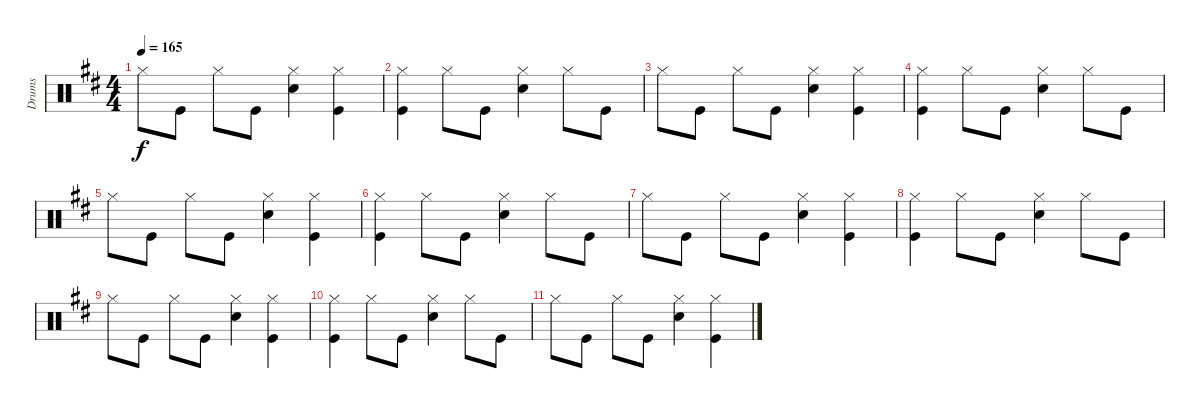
\track ("Drums" "Drums") {instrument percussion}
\staff {score}
\articulation defaults
\ts (4 4)
\tempo 165
\clef neutral
\ks d "Hi-Hat (closed)".8{dy f} "Kick (hit)".8 "Hi-Hat (closed)".8 "Kick (hit)".8
("Hi-Hat (closed)" "Snare (hit) 2").4 ("Hi-Hat (closed)" "Kick (hit)").4 |
("Hi-Hat (closed)" "Kick (hit)").4 "Hi-Hat (closed)".8 "Kick (hit)".8 ("Hi-Hat (closed)" "Snare (hit) 2").4 "Hi-Hat (closed)".8 "Kick (hit)".8 |
"Hi-Hat (closed)".8 "Kick (hit)".8 "Hi-Hat (closed)".8 "Kick (hit)".8 ("Hi-Hat (closed)" "Snare (hit) 2").4 ("Hi-Hat (closed)" "Kick (hit)").4 |
("Hi-Hat (closed)" "Kick (hit)").4 "Hi-Hat (closed)".8 "Kick (hit)".8 ("Hi-Hat (closed)" "Snare (hit) 2").4 "Hi-Hat (closed)".8 "Kick (hit)".8 |
"Hi-Hat (closed)".8 "Kick (hit)".8 "Hi-Hat (closed)".8 "Kick (hit)".8 ("Hi-Hat (closed)" "Snare (hit) 2").4 ("Hi-Hat (closed)" "Kick (hit)").4 |
("Hi-Hat (closed)" "Kick (hit)").4 "Hi-Hat (closed)".8 "Kick (hit)".8 ("Hi-Hat (closed)" "Snare (hit) 2").4 "Hi-Hat (closed)".8 "Kick (hit)".8 |
"Hi-Hat (closed)".8 "Kick (hit)".8 "Hi-Hat (closed)".8 "Kick (hit)".8 ("Hi-Hat (closed)" "Snare (hit) 2").4 ("Hi-Hat (closed)" "Kick (hit)").4 |
("Hi-Hat (closed)" "Kick (hit)").4 "Hi-Hat (closed)".8 "Kick (hit)".8 ("Hi-Hat (closed)" "Snare (hit) 2").4 "Hi-Hat (closed)".8 "Kick (hit)".8 |
"Hi-Hat (closed)".8 "Kick (hit)".8 "Hi-Hat (closed)".8 "Kick (hit)".8 ("Hi-Hat (closed)" "Snare (hit) 2").4 ("Hi-Hat (closed)" "Kick (hit)").4 |
("Hi-Hat (closed)" "Kick (hit)").4 "Hi-Hat (closed)".8 "Kick (hit)".8 ("Hi-Hat (closed)" "Snare (hit) 2").4 "Hi-Hat (closed)".8 "Kick (hit)".8 |
"Hi-Hat (closed)".8 "Kick (hit)".8 "Hi-Hat (closed)".8 "Kick (hit)".8 ("Hi-Hat (closed)" "Snare (hit) 2").4 ("Hi-Hat (closed)" "Kick (hit)").4
